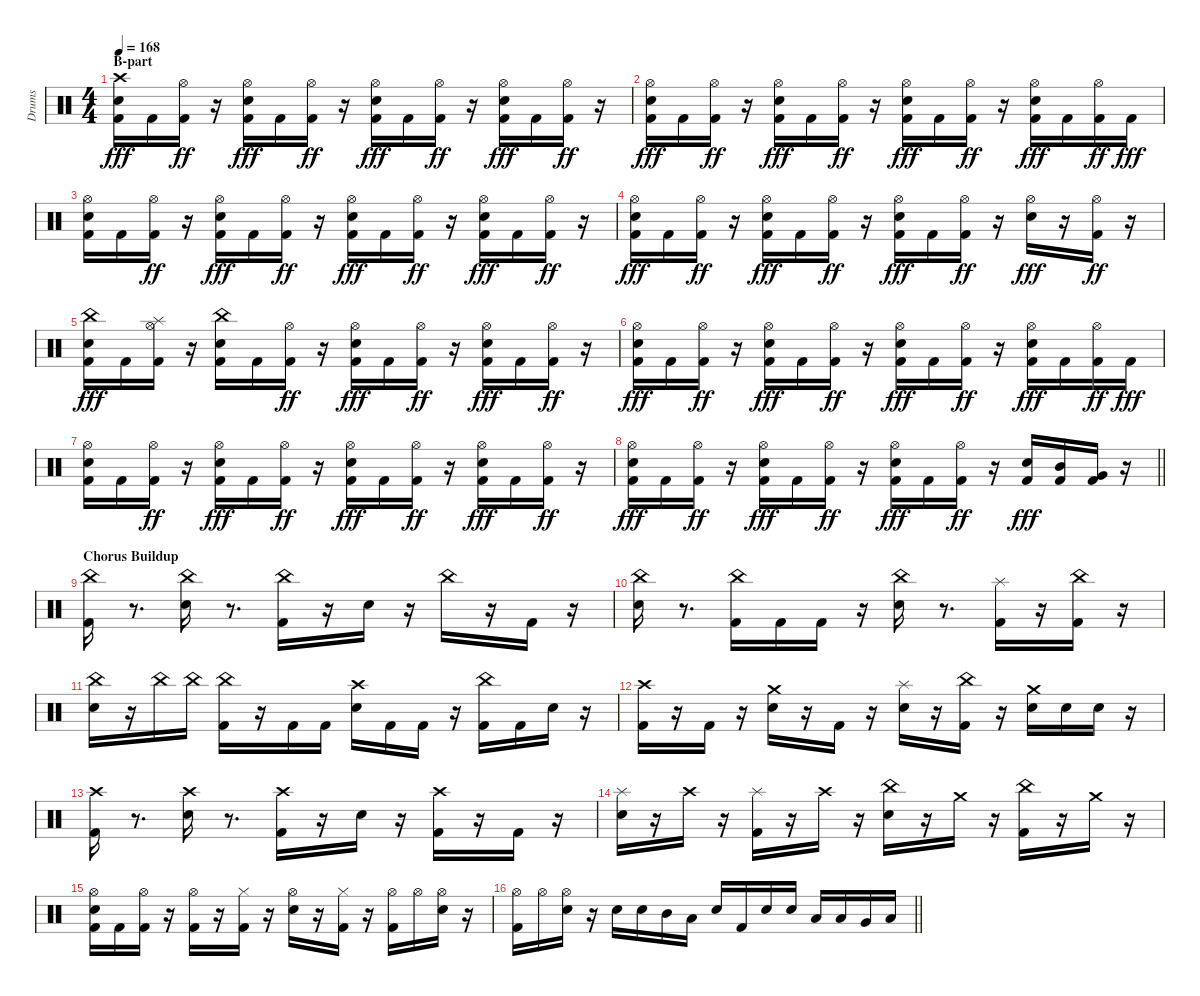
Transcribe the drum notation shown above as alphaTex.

\track ("Drums" "Drums") {instrument percussion}
\staff {score}
\articulation defaults
\ts (4 4)
\section ("" "B-part")
\tempo 168
\clef neutral
\ks c
("Kick (hit) 2" "Snare (hit) 2" "Crash high (hit)").16{dy fff} "Kick (hit) 2".16 ("Kick (hit) 2" "Hi-Hat (open)").16{dy ff} r.16 ("Kick (hit) 2" "Snare (hit) 2" "Hi-Hat (open)").16{dy fff} "Kick (hit) 2".16 ("Kick (hit) 2" "Hi-Hat (open)").16{dy ff} r.16 ("Kick (hit) 2" "Snare (hit) 2" "Hi-Hat (open)").16{dy fff} "Kick (hit) 2".16 ("Kick (hit) 2" "Hi-Hat (open)").16{dy ff} r.16 ("Kick (hit) 2" "Snare (hit) 2" "Hi-Hat (open)").16{dy fff} "Kick (hit) 2".16 ("Kick (hit) 2" "Hi-Hat (open)").16{dy ff} r.16 |
("Kick (hit) 2" "Snare (hit) 2" "Hi-Hat (open)").16{dy fff} "Kick (hit) 2".16 ("Kick (hit) 2" "Hi-Hat (open)").16{dy ff} r.16 ("Kick (hit) 2" "Snare (hit) 2" "Hi-Hat (open)").16{dy fff} "Kick (hit) 2".16 ("Kick (hit) 2" "Hi-Hat (open)").16{dy ff} r.16 ("Kick (hit) 2" "Snare (hit) 2" "Hi-Hat (open)").16{dy fff} "Kick (hit) 2".16 ("Kick (hit) 2" "Hi-Hat (open)").16{dy ff} r.16 ("Kick (hit) 2" "Snare (hit) 2" "Hi-Hat (open)").16{dy fff} "Kick (hit) 2".16 ("Kick (hit) 2" "Hi-Hat (open)").16{dy ff} "Kick (hit) 2".16{dy fff} |
("Kick (hit) 2" "Snare (hit) 2" "Hi-Hat (open)").16 "Kick (hit) 2".16 ("Kick (hit) 2" "Hi-Hat (open)").16{dy ff} r.16 ("Kick (hit) 2" "Snare (hit) 2" "Hi-Hat (open)").16{dy fff} "Kick (hit) 2".16 ("Kick (hit) 2" "Hi-Hat (open)").16{dy ff} r.16 ("Kick (hit) 2" "Snare (hit) 2" "Hi-Hat (open)").16{dy fff} "Kick (hit) 2".16 ("Kick (hit) 2" "Hi-Hat (open)").16{dy ff} r.16 ("Kick (hit) 2" "Snare (hit) 2" "Hi-Hat (open)").16{dy fff} "Kick (hit) 2".16 ("Kick (hit) 2" "Hi-Hat (open)").16{dy ff} r.16 |
("Kick (hit) 2" "Snare (hit) 2" "Hi-Hat (open)").16{dy fff} "Kick (hit) 2".16 ("Kick (hit) 2" "Hi-Hat (open)").16{dy ff} r.16 ("Kick (hit) 2" "Snare (hit) 2" "Hi-Hat (open)").16{dy fff} "Kick (hit) 2".16 ("Kick (hit) 2" "Hi-Hat (open)").16{dy ff} r.16 ("Kick (hit) 2" "Snare (hit) 2" "Hi-Hat (open)").16{dy fff} "Kick (hit) 2".16 ("Kick (hit) 2" "Hi-Hat (open)").16{dy ff} r.16 ("Snare (hit) 2" "Hi-Hat (open)").16{dy fff} r.16 ("Kick (hit) 2" "Hi-Hat (open)").16{dy ff} r.16 |
("Kick (hit) 2" "Snare (hit) 2" "China (hit)").16{dy fff} "Kick (hit) 2".16 ("Kick (hit) 2" "Hi-Hat (open)" "Splash (hit)").16 r.16 ("Kick (hit) 2" "Snare (hit) 2" "China (hit)").16 "Kick (hit) 2".16 ("Kick (hit) 2" "Hi-Hat (open)").16{dy ff} r.16 ("Kick (hit) 2" "Snare (hit) 2" "Hi-Hat (open)").16{dy fff} "Kick (hit) 2".16 ("Kick (hit) 2" "Hi-Hat (open)").16{dy ff} r.16 ("Kick (hit) 2" "Snare (hit) 2" "Hi-Hat (open)").16{dy fff} "Kick (hit) 2".16 ("Kick (hit) 2" "Hi-Hat (open)").16{dy ff} r.16 |
("Kick (hit) 2" "Snare (hit) 2" "Hi-Hat (open)").16{dy fff} "Kick (hit) 2".16 ("Kick (hit) 2" "Hi-Hat (open)").16{dy ff} r.16 ("Kick (hit) 2" "Snare (hit) 2" "Hi-Hat (open)").16{dy fff} "Kick (hit) 2".16 ("Kick (hit) 2" "Hi-Hat (open)").16{dy ff} r.16 ("Kick (hit) 2" "Snare (hit) 2" "Hi-Hat (open)").16{dy fff} "Kick (hit) 2".16 ("Kick (hit) 2" "Hi-Hat (open)").16{dy ff} r.16 ("Kick (hit) 2" "Snare (hit) 2" "Hi-Hat (open)").16{dy fff} "Kick (hit) 2".16 ("Kick (hit) 2" "Hi-Hat (open)").16{dy ff} "Kick (hit) 2".16{dy fff} |
("Kick (hit) 2" "Snare (hit) 2" "Hi-Hat (open)").16 "Kick (hit) 2".16 ("Kick (hit) 2" "Hi-Hat (open)").16{dy ff} r.16 ("Kick (hit) 2" "Snare (hit) 2" "Hi-Hat (open)").16{dy fff} "Kick (hit) 2".16 ("Kick (hit) 2" "Hi-Hat (open)").16{dy ff} r.16 ("Kick (hit) 2" "Snare (hit) 2" "Hi-Hat (open)").16{dy fff} "Kick (hit) 2".16 ("Kick (hit) 2" "Hi-Hat (open)").16{dy ff} r.16 ("Kick (hit) 2" "Snare (hit) 2" "Hi-Hat (open)").16{dy fff} "Kick (hit) 2".16 ("Kick (hit) 2" "Hi-Hat (open)").16{dy ff} r.16 |
\barLineRight lightlight
("Kick (hit) 2" "Snare (hit) 2" "Hi-Hat (open)").16{dy fff} "Kick (hit) 2".16 ("Kick (hit) 2" "Hi-Hat (open)").16{dy ff} r.16 ("Kick (hit) 2" "Snare (hit) 2" "Hi-Hat (open)").16{dy fff} "Kick (hit) 2".16 ("Kick (hit) 2" "Hi-Hat (open)").16{dy ff} r.16 ("Kick (hit) 2" "Snare (hit) 2" "Hi-Hat (open)").16{dy fff} "Kick (hit) 2".16 ("Kick (hit) 2" "Hi-Hat (open)").16{dy ff} r.16 ("Kick (hit) 2" "Snare (hit) 2").16{dy fff} ("Kick (hit) 2" "Mid Tom (hit)").16 ("Kick (hit) 2" "Very Low Tom (hit)").16 r.16 |
\section ("" "Chorus Buildup")
("Kick (hit) 2" "China (hit)").16 r.8{d} ("Snare (hit) 2" "China (hit)").16 r.8{d} ("Kick (hit) 2" "China (hit)").16 r.16 "Snare (hit) 2".16 r.16 "China (hit)".16 r.16 "Kick (hit) 2".16 r.16 |
("Snare (hit) 2" "China (hit)").16 r.8{d} ("Kick (hit) 2" "China (hit)").16 "Kick (hit) 2".16 "Kick (hit) 2".16 r.16 ("Snare (hit) 2" "China (hit)").16 r.8{d} ("Kick (hit) 2" "Splash (hit)").16 r.16 ("Kick (hit) 2" "China (hit)").16 r.16 |
("Snare (hit) 2" "China (hit)").16 r.16 "China (hit)".16 "China (hit)".16 ("Kick (hit) 2" "China (hit)").16 r.16 "Kick (hit) 2".16 "Kick (hit) 2".16 ("Snare (hit) 2" "Crash high (hit)").16 "Kick (hit) 2".16 "Kick (hit) 2".16 r.16 ("Kick (hit) 2" "China (hit)").16 "Kick (hit) 2".16 "Snare (hit) 2".16 r.16 |
("Kick (hit) 2" "Crash high (hit)").16 r.16 "Kick (hit) 2".16 r.16 ("Snare (hit) 2" "Crash medium (hit)").16 r.16 "Kick (hit) 2".16 r.16 ("Snare (hit) 2" "Splash (hit)").16 r.16 ("Kick (hit) 2" "China (hit)").16 r.16 ("Snare (hit) 2" "Crash medium (hit)").16 "Snare (hit) 2".16 "Snare (hit) 2".16 r.16 |
("Kick (hit) 2" "Crash high (hit)").16 r.8{d} ("Snare (hit) 2" "Crash high (hit)").16 r.8{d} ("Kick (hit) 2" "Crash high (hit)").16 r.16 "Snare (hit) 2".16 r.16 ("Kick (hit) 2" "Crash high (hit)").16 r.16 "Kick (hit) 2".16 r.16 |
("Snare (hit) 2" "Splash (hit)").16 r.16 "Crash high (hit)".16 r.16 ("Kick (hit) 2" "Splash (hit)").16 r.16 "Crash high (hit)".16 r.16 ("Snare (hit) 2" "China (hit)").16 r.16 "Crash medium (hit)".16 r.16 ("Kick (hit) 2" "China (hit)").16 r.16 "Crash medium (hit)".16 r.16 |
("Kick (hit) 2" "Snare (hit) 2" "Hi-Hat (open)").16 "Kick (hit) 2".16 ("Kick (hit) 2" "Hi-Hat (open)").16 r.16 ("Kick (hit) 2" "Hi-Hat (open)").16 r.16 ("Kick (hit) 2" "Hi-Hat (closed)").16 r.16 ("Snare (hit) 2" "Hi-Hat (open)").16 r.16 ("Kick (hit) 2" "Hi-Hat (closed)").16 r.16 ("Kick (hit) 2" "Hi-Hat (open)").16 "Hi-Hat (open)".16 ("Snare (hit) 2" "Hi-Hat (open)").16 r.16 |
\barLineRight lightlight
("Kick (hit) 2" "Hi-Hat (open)").16 "Hi-Hat (open)".16 ("Snare (hit) 2" "Hi-Hat (open)").16 r.16 "Snare (hit) 2".16 "Snare (hit) 2".16 "Mid Tom (hit)".16 "Low Tom (hit)".16 "Snare (hit) 2".16 "Kick (hit) 2".16 "Snare (hit) 2".16 "Snare (hit) 2".16 "Low Tom (hit)".16 "Low Tom (hit)".16 "Very Low Tom (hit)".16 "Low Floor Tom (hit)".16
